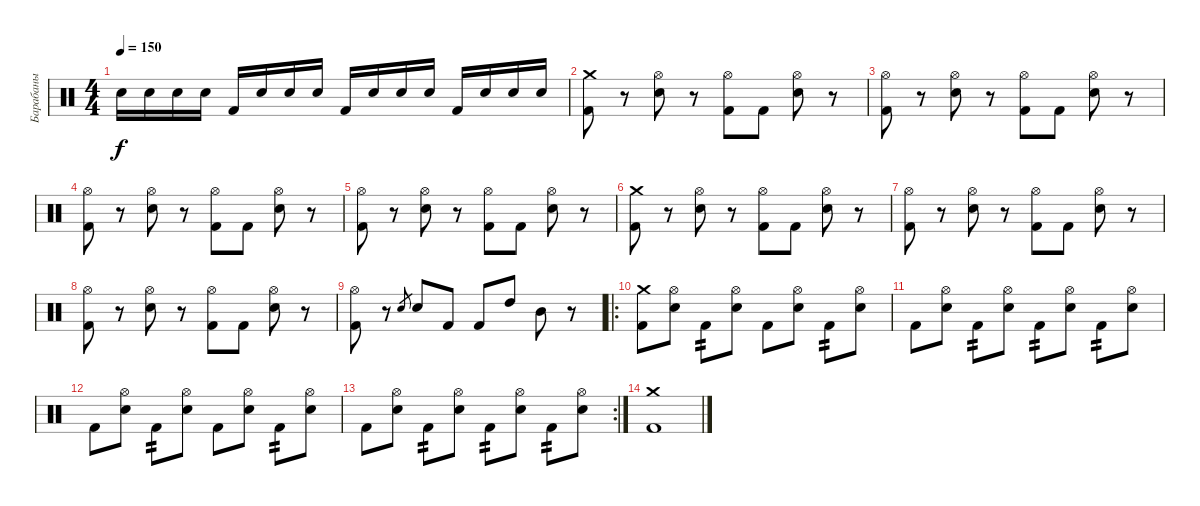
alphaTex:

\track ("Барабаны" "Барабаны") {instrument percussion}
\staff {score}
\articulation defaults
\ts (4 4)
\tempo 150
\clef neutral
\ks c "Electric Snare (hit)".16{dy f} "Electric Snare (hit)".16 "Electric Snare (hit)".16 "Electric Snare (hit)".16 "Kick (hit) 2".16 "Electric Snare (hit)".16 "Electric Snare (hit)".16 "Electric Snare (hit)".16 "Kick (hit) 2".16 "Electric Snare (hit)".16 "Electric Snare (hit)".16 "Electric Snare (hit)".16 "Kick (hit) 2".16 "Electric Snare (hit)".16 "Electric Snare (hit)".16 "Electric Snare (hit)".16
|
("Crash medium (hit)" "Kick (hit) 2").8 r.8 ("Hi-Hat (open)" "Electric Snare (hit)").8 r.8 ("Hi-Hat (open)" "Kick (hit) 2").8 "Kick (hit) 2".8 ("Hi-Hat (open)" "Electric Snare (hit)").8 r.8 |
("Hi-Hat (open)" "Kick (hit) 2").8 r.8 ("Hi-Hat (open)" "Electric Snare (hit)").8 r.8 ("Hi-Hat (open)" "Kick (hit) 2").8 "Kick (hit) 2".8 ("Hi-Hat (open)" "Electric Snare (hit)").8 r.8 |
("Hi-Hat (open)" "Kick (hit) 2").8 r.8 ("Hi-Hat (open)" "Electric Snare (hit)").8 r.8 ("Hi-Hat (open)" "Kick (hit) 2").8 "Kick (hit) 2".8 ("Hi-Hat (open)" "Electric Snare (hit)").8 r.8 |
("Hi-Hat (open)" "Kick (hit) 2").8 r.8 ("Hi-Hat (open)" "Electric Snare (hit)").8 r.8 ("Hi-Hat (open)" "Kick (hit) 2").8 "Kick (hit) 2".8 ("Hi-Hat (open)" "Electric Snare (hit)").8 r.8 |
("Crash medium (hit)" "Kick (hit) 2").8 r.8 ("Hi-Hat (open)" "Electric Snare (hit)").8 r.8 ("Hi-Hat (open)" "Kick (hit) 2").8 "Kick (hit) 2".8 ("Hi-Hat (open)" "Electric Snare (hit)").8 r.8 |
("Hi-Hat (open)" "Kick (hit) 2").8 r.8 ("Hi-Hat (open)" "Electric Snare (hit)").8 r.8 ("Hi-Hat (open)" "Kick (hit) 2").8 "Kick (hit) 2".8 ("Hi-Hat (open)" "Electric Snare (hit)").8 r.8 |
("Hi-Hat (open)" "Kick (hit) 2").8 r.8 ("Hi-Hat (open)" "Electric Snare (hit)").8 r.8 ("Hi-Hat (open)" "Kick (hit) 2").8 "Kick (hit) 2".8 ("Hi-Hat (open)" "Electric Snare (hit)").8 r.8 |
("Hi-Hat (open)" "Kick (hit) 2").8 r.8 "Electric Snare (hit)".8{gr} "Electric Snare (hit)".8 "Kick (hit) 2".8 "Kick (hit) 2".8 "High Tom (hit)".8 "Mid Tom (hit)".8 r.8 |
\ro
("Crash medium (hit)" "Kick (hit) 2").8 ("Hi-Hat (open)" "Electric Snare (hit)").8 "Kick (hit) 2".8{tp 2} ("Hi-Hat (open)" "Electric Snare (hit)").8 "Kick (hit) 2".8 ("Hi-Hat (open)" "Electric Snare (hit)").8 "Kick (hit) 2".8{tp 2} ("Hi-Hat (open)" "Electric Snare (hit)").8 |
"Kick (hit) 2".8 ("Hi-Hat (open)" "Electric Snare (hit)").8 "Kick (hit) 2".8{tp 2} ("Hi-Hat (open)" "Electric Snare (hit)").8 "Kick (hit) 2".8{tp 2} ("Hi-Hat (open)" "Electric Snare (hit)").8 "Kick (hit) 2".8{tp 2} ("Hi-Hat (open)" "Electric Snare (hit)").8 |
"Kick (hit) 2".8 ("Hi-Hat (open)" "Electric Snare (hit)").8 "Kick (hit) 2".8{tp 2} ("Hi-Hat (open)" "Electric Snare (hit)").8 "Kick (hit) 2".8 ("Hi-Hat (open)" "Electric Snare (hit)").8 "Kick (hit) 2".8{tp 2} ("Hi-Hat (open)" "Electric Snare (hit)").8 |
\rc 2 "Kick (hit) 2".8
("Hi-Hat (open)" "Electric Snare (hit)").8 "Kick (hit) 2".8{tp 2} ("Hi-Hat (open)" "Electric Snare (hit)").8 "Kick (hit) 2".8{tp 2} ("Hi-Hat (open)" "Electric Snare (hit)").8 "Kick (hit) 2".8{tp 2} ("Hi-Hat (open)" "Electric Snare (hit)").8 |
("Crash medium (hit)" "Kick (hit) 2").1
